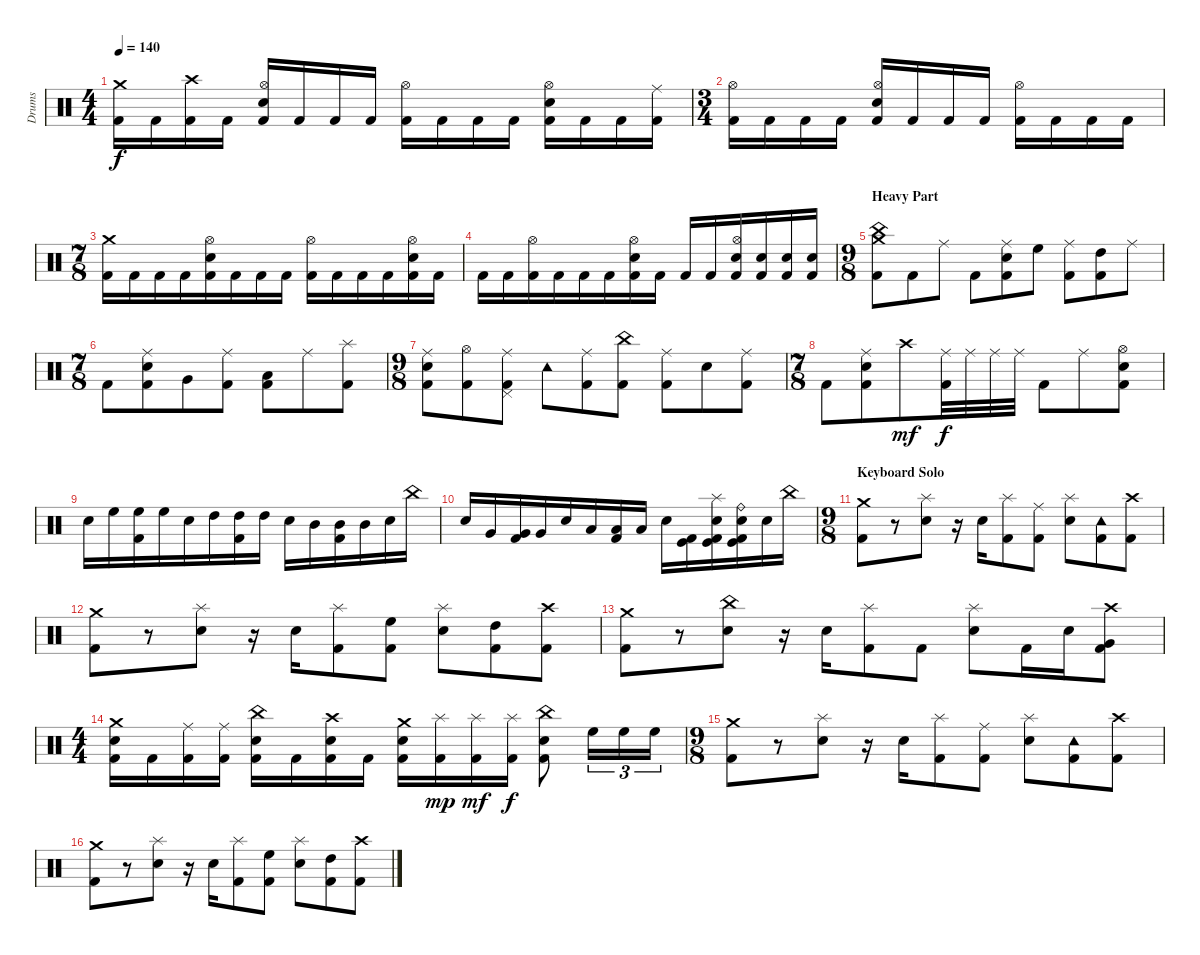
\track ("Drums" "Drums") {instrument percussion}
\staff {score}
\articulation defaults
\ts (4 4)
\tempo 140
\clef neutral
\ks c
("Crash medium (hit)" "Kick (hit) 2").16{dy f} "Kick (hit) 2".16 ("Crash high (hit)" "Kick (hit) 2").16 "Kick (hit) 2".16 ("Hi-Hat (open)" "Electric Snare (hit)" "Kick (hit) 2").16 "Kick (hit) 2".16 "Kick (hit) 2".16 "Kick (hit) 2".16 ("Hi-Hat (open)" "Kick (hit) 2").16 "Kick (hit) 2".16 "Kick (hit) 2".16 "Kick (hit) 2".16 ("Hi-Hat (open)" "Electric Snare (hit)" "Kick (hit) 2").16 "Kick (hit) 2".16 "Kick (hit) 2".16 ("Ride (middle)" "Kick (hit) 2").16 |
\ts (3 4)
("Hi-Hat (open)" "Kick (hit) 2").16 "Kick (hit) 2".16 "Kick (hit) 2".16 "Kick (hit) 2".16 ("Hi-Hat (open)" "Electric Snare (hit)" "Kick (hit) 2").16 "Kick (hit) 2".16 "Kick (hit) 2".16 "Kick (hit) 2".16 ("Hi-Hat (open)" "Kick (hit) 2").16 "Kick (hit) 2".16 "Kick (hit) 2".16 "Kick (hit) 2".16 |
\ts (7 8)
("Crash medium (hit)" "Kick (hit) 2").16 "Kick (hit) 2".16 "Kick (hit) 2".16 "Kick (hit) 2".16 ("Hi-Hat (open)" "Electric Snare (hit)" "Kick (hit) 2").16 "Kick (hit) 2".16 "Kick (hit) 2".16 "Kick (hit) 2".16 ("Hi-Hat (open)" "Kick (hit) 2").16 "Kick (hit) 2".16 "Kick (hit) 2".16 "Kick (hit) 2".16 ("Hi-Hat (open)" "Electric Snare (hit)" "Kick (hit) 2").16 "Kick (hit) 2".16 |
"Kick (hit) 2".16 "Kick (hit) 2".16 ("Hi-Hat (open)" "Kick (hit) 2").16 "Kick (hit) 2".16 "Kick (hit) 2".16 "Kick (hit) 2".16 ("Hi-Hat (open)" "Electric Snare (hit)" "Kick (hit) 2").16 "Kick (hit) 2".16 "Kick (hit) 2".16 "Kick (hit) 2".16 ("Hi-Hat (open)" "Electric Snare (hit)" "Kick (hit) 2").16 ("Electric Snare (hit)" "Kick (hit) 2").16 ("Electric Snare (hit)" "Kick (hit) 2").16 ("Electric Snare (hit)" "Kick (hit) 2").16 |
\ts (9 8)
\section ("" "Heavy Part ")
("Crash medium (hit)" "China (hit)" "Kick (hit) 2").8 "Kick (hit) 2".8 "Ride (middle)".8 "Kick (hit) 2".8 ("Ride (middle)" "Electric Snare (hit)" "Kick (hit) 2").8 "High Floor Tom (hit)".8 ("Ride (middle)" "Kick (hit) 2").8 ("High Tom (hit)" "Kick (hit) 2").8 "Ride (middle)".8 |
\ts (7 8)
"Kick (hit) 2".8 ("Ride (middle)" "Electric Snare (hit)" "Kick (hit) 2").8 "Very Low Tom (hit)".8 ("Ride (middle)" "Kick (hit) 2").8 ("Low Floor Tom (hit)" "Kick (hit) 2").8 "Ride (middle)".8 ("Splash (hit)" "Kick (hit) 2").8 |
\ts (9 8)
("Ride (middle)" "Electric Snare (hit)" "Kick (hit) 2").8 ("Hi-Hat (open)" "Kick (hit) 2").8 ("Ride (middle)" "Pedal Hi-Hat (hit)" "Kick (hit) 2").8 "Tambourine (hit)".8 ("Ride (middle)" "Kick (hit) 2").8 ("China (hit)" "Kick (hit) 2").8 ("Ride (middle)" "Kick (hit) 2").8 "Electric Snare (hit)".8 ("Ride (middle)" "Kick (hit) 2").8 |
\ts (7 8)
"Kick (hit) 2".8 ("Ride (middle)" "Electric Snare (hit)" "Kick (hit) 2").8 "Crash high (hit)".8{dy mf} ("Ride (middle)" "Kick (hit) 2").32{dy f} "Ride (middle)".32 "Ride (middle)".32 "Ride (middle)".32 "Kick (hit) 2".8 "Ride (middle)".8 ("Hi-Hat (open)" "Electric Snare (hit)" "Kick (hit) 2").8 |
"Electric Snare (hit)".16 "High Floor Tom (hit)".16 ("High Floor Tom (hit)" "Kick (hit) 2").16 "High Floor Tom (hit)".16 "Electric Snare (hit)".16 "High Tom (hit)".16 ("High Tom (hit)" "Kick (hit) 2").16 "High Tom (hit)".16 "Electric Snare (hit)".16 "Mid Tom (hit)".16 ("Mid Tom (hit)" "Kick (hit) 2").16 "Mid Tom (hit)".16 "Electric Snare (hit)".16 "China (hit)".16 |
"Electric Snare (hit)".16 "Very Low Tom (hit)".16 ("Very Low Tom (hit)" "Kick (hit) 2").16 "Very Low Tom (hit)".16 "Electric Snare (hit)".16 "Low Floor Tom (hit)".16 ("Low Floor Tom (hit)" "Kick (hit) 2").16 "Low Floor Tom (hit)".16 "Electric Snare (hit)".16 ("Kick (hit) 2" "Kick (hit)").16 ("Splash (hit)" "Electric Snare (hit)" "Kick (hit)" "Kick (hit) 2").16 ("Ride (bell)" "Electric Snare (hit)" "Kick (hit) 2" "Kick (hit)").16 "Electric Snare (hit)".16 "China (hit)".16 |
\ts (9 8)
\section ("" "Keyboard Solo")
("Crash medium (hit)" "Kick (hit) 2").8 r.8 ("Splash (hit)" "Electric Snare (hit)").8 r.16 "Electric Snare (hit)".16 ("Splash (hit)" "Kick (hit) 2").8 ("Ride (middle)" "Kick (hit) 2").8 ("Splash (hit)" "Electric Snare (hit)").8 ("Tambourine (hit)" "Kick (hit) 2").8 ("Crash high (hit)" "Kick (hit) 2").8 |
("Crash medium (hit)" "Kick (hit) 2").8 r.8 ("Splash (hit)" "Electric Snare (hit)").8 r.16 "Electric Snare (hit)".16 ("Splash (hit)" "Kick (hit) 2").8 ("High Floor Tom (hit)" "Kick (hit) 2").8 ("Splash (hit)" "Electric Snare (hit)").8 ("High Tom (hit)" "Kick (hit) 2").8 ("Crash high (hit)" "Kick (hit) 2").8 |
("Crash medium (hit)" "Kick (hit) 2").8 r.8 ("China (hit)" "Electric Snare (hit)").8 r.16 "Electric Snare (hit)".16 ("Splash (hit)" "Kick (hit) 2").8 "Kick (hit) 2".8 ("Splash (hit)" "Electric Snare (hit)").8 "Kick (hit) 2".16 "Electric Snare (hit)".16 ("Crash high (hit)" "Very Low Tom (hit)" "Kick (hit) 2").8 |
\ts (4 4)
("Crash medium (hit)" "Electric Snare (hit)" "Kick (hit) 2").16 "Kick (hit) 2".16 ("Ride (middle)" "Kick (hit) 2").16 ("Ride (middle)" "Kick (hit) 2").16 ("China (hit)" "Electric Snare (hit)" "Kick (hit) 2").16 "Kick (hit) 2".16 ("Crash high (hit)" "Electric Snare (hit)" "Kick (hit) 2").16 "Kick (hit) 2".16 ("Crash medium (hit)" "Electric Snare (hit)" "Kick (hit) 2").16 ("Splash (hit)" "Kick (hit) 2").16{dy mp} ("Splash (hit)" "Kick (hit) 2").16{dy mf} ("Splash (hit)" "Kick (hit) 2").16{dy f} ("China (hit)" "Electric Snare (hit)" "Kick (hit) 2").8 "High Floor Tom (hit)".16{tu (3 2)} "High Floor Tom (hit)".16{tu (3 2)} "High Floor Tom (hit)".16{tu (3 2)} |
\ts (9 8)
("Crash medium (hit)" "Kick (hit) 2").8 r.8 ("Splash (hit)" "Electric Snare (hit)").8 r.16 "Electric Snare (hit)".16 ("Splash (hit)" "Kick (hit) 2").8 ("Ride (middle)" "Kick (hit) 2").8 ("Splash (hit)" "Electric Snare (hit)").8 ("Tambourine (hit)" "Kick (hit) 2").8 ("Crash high (hit)" "Kick (hit) 2").8 |
("Crash medium (hit)" "Kick (hit) 2").8 r.8 ("Splash (hit)" "Electric Snare (hit)").8 r.16 "Electric Snare (hit)".16 ("Splash (hit)" "Kick (hit) 2").8 ("High Floor Tom (hit)" "Kick (hit) 2").8 ("Splash (hit)" "Electric Snare (hit)").8 ("High Tom (hit)" "Kick (hit) 2").8 ("Crash high (hit)" "Kick (hit) 2").8
